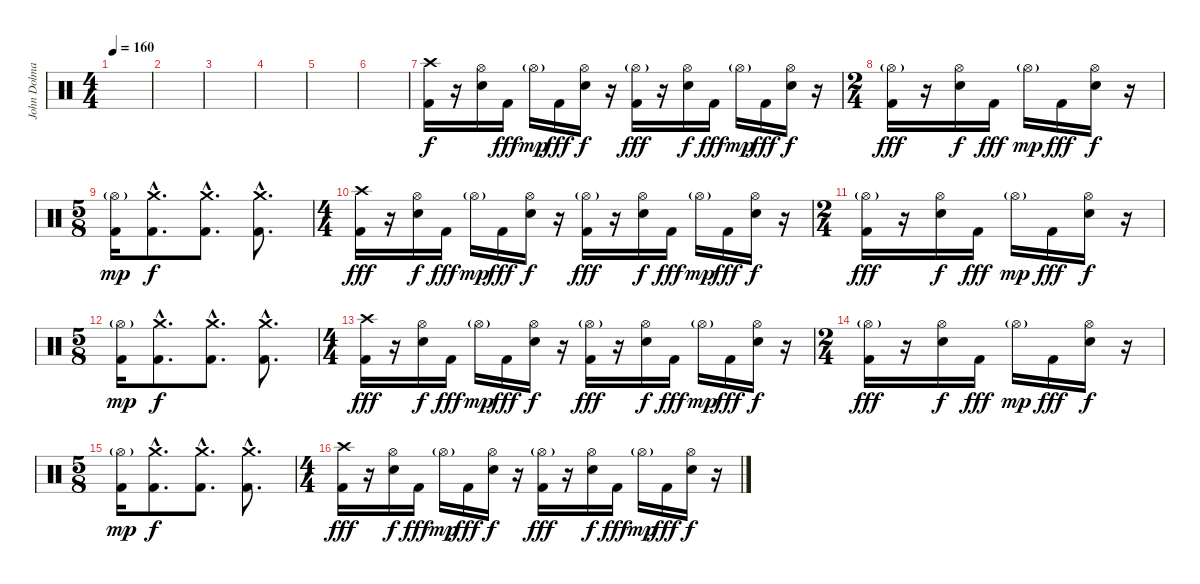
\track ("John Dolmayan(Drums)" "John Dolma") {instrument percussion}
\staff {score}
\articulation defaults
\ts (4 4)
\tempo 160
\clef neutral
\ks c
|
|
|
|
|
|
("Crash high (hit)" "Kick (hit) 2").16 r.16 ("Hi-Hat (open)" "Electric Snare (hit)").16{dy f} "Kick (hit) 2".16{dy fff} "Hi-Hat (open)"{g}.16{dy mp} "Kick (hit) 2".16{dy fff} ("Hi-Hat (open)" "Electric Snare (hit)").16{dy f} r.16 ("Hi-Hat (open)"{g} "Kick (hit) 2").16{dy fff} r.16 ("Hi-Hat (open)" "Electric Snare (hit)").16{dy f} "Kick (hit) 2".16{dy fff} "Hi-Hat (open)"{g}.16{dy mp} "Kick (hit) 2".16{dy fff} ("Hi-Hat (open)" "Electric Snare (hit)").16{dy f} r.16 |
\ts (2 4)
("Hi-Hat (open)"{g} "Kick (hit) 2").16{dy fff} r.16 ("Hi-Hat (open)" "Electric Snare (hit)").16{dy f} "Kick (hit) 2".16{dy fff} "Hi-Hat (open)"{g}.16{dy mp} "Kick (hit) 2".16{dy fff} ("Hi-Hat (open)" "Electric Snare (hit)").16{dy f} r.16 |
\ts (5 8)
("Hi-Hat (open)"{g} "Kick (hit) 2").16{dy mp} ("Crash medium (hit)"{hac} "Kick (hit) 2"{hac}).8{d dy f} ("Crash medium (hit)"{hac} "Kick (hit) 2"{hac}).8{d} ("Crash medium (hit)"{hac} "Kick (hit) 2"{hac}).8{d} |
\ts (4 4)
("Crash high (hit)" "Kick (hit) 2").16{dy fff} r.16 ("Hi-Hat (open)" "Electric Snare (hit)").16{dy f} "Kick (hit) 2".16{dy fff} "Hi-Hat (open)"{g}.16{dy mp} "Kick (hit) 2".16{dy fff} ("Hi-Hat (open)" "Electric Snare (hit)").16{dy f} r.16 ("Hi-Hat (open)"{g} "Kick (hit) 2").16{dy fff} r.16 ("Hi-Hat (open)" "Electric Snare (hit)").16{dy f} "Kick (hit) 2".16{dy fff} "Hi-Hat (open)"{g}.16{dy mp} "Kick (hit) 2".16{dy fff} ("Hi-Hat (open)" "Electric Snare (hit)").16{dy f} r.16 |
\ts (2 4)
("Hi-Hat (open)"{g} "Kick (hit) 2").16{dy fff} r.16 ("Hi-Hat (open)" "Electric Snare (hit)").16{dy f} "Kick (hit) 2".16{dy fff} "Hi-Hat (open)"{g}.16{dy mp} "Kick (hit) 2".16{dy fff} ("Hi-Hat (open)" "Electric Snare (hit)").16{dy f} r.16 |
\ts (5 8)
("Hi-Hat (open)"{g} "Kick (hit) 2").16{dy mp} ("Crash medium (hit)"{hac} "Kick (hit) 2"{hac}).8{d dy f} ("Crash medium (hit)"{hac} "Kick (hit) 2"{hac}).8{d} ("Crash medium (hit)"{hac} "Kick (hit) 2"{hac}).8{d} |
\ts (4 4)
("Crash high (hit)" "Kick (hit) 2").16{dy fff} r.16 ("Hi-Hat (open)" "Electric Snare (hit)").16{dy f} "Kick (hit) 2".16{dy fff} "Hi-Hat (open)"{g}.16{dy mp} "Kick (hit) 2".16{dy fff} ("Hi-Hat (open)" "Electric Snare (hit)").16{dy f} r.16 ("Hi-Hat (open)"{g} "Kick (hit) 2").16{dy fff} r.16 ("Hi-Hat (open)" "Electric Snare (hit)").16{dy f} "Kick (hit) 2".16{dy fff} "Hi-Hat (open)"{g}.16{dy mp} "Kick (hit) 2".16{dy fff} ("Hi-Hat (open)" "Electric Snare (hit)").16{dy f} r.16 |
\ts (2 4)
("Hi-Hat (open)"{g} "Kick (hit) 2").16{dy fff} r.16 ("Hi-Hat (open)" "Electric Snare (hit)").16{dy f} "Kick (hit) 2".16{dy fff} "Hi-Hat (open)"{g}.16{dy mp} "Kick (hit) 2".16{dy fff} ("Hi-Hat (open)" "Electric Snare (hit)").16{dy f} r.16 |
\ts (5 8)
("Hi-Hat (open)"{g} "Kick (hit) 2").16{dy mp} ("Crash medium (hit)"{hac} "Kick (hit) 2"{hac}).8{d dy f} ("Crash medium (hit)"{hac} "Kick (hit) 2"{hac}).8{d} ("Crash medium (hit)"{hac} "Kick (hit) 2"{hac}).8{d} |
\ts (4 4)
("Crash high (hit)" "Kick (hit) 2").16{dy fff} r.16 ("Hi-Hat (open)" "Electric Snare (hit)").16{dy f} "Kick (hit) 2".16{dy fff} "Hi-Hat (open)"{g}.16{dy mp} "Kick (hit) 2".16{dy fff} ("Hi-Hat (open)" "Electric Snare (hit)").16{dy f} r.16 ("Hi-Hat (open)"{g} "Kick (hit) 2").16{dy fff} r.16 ("Hi-Hat (open)" "Electric Snare (hit)").16{dy f} "Kick (hit) 2".16{dy fff} "Hi-Hat (open)"{g}.16{dy mp} "Kick (hit) 2".16{dy fff} ("Hi-Hat (open)" "Electric Snare (hit)").16{dy f} r.16
